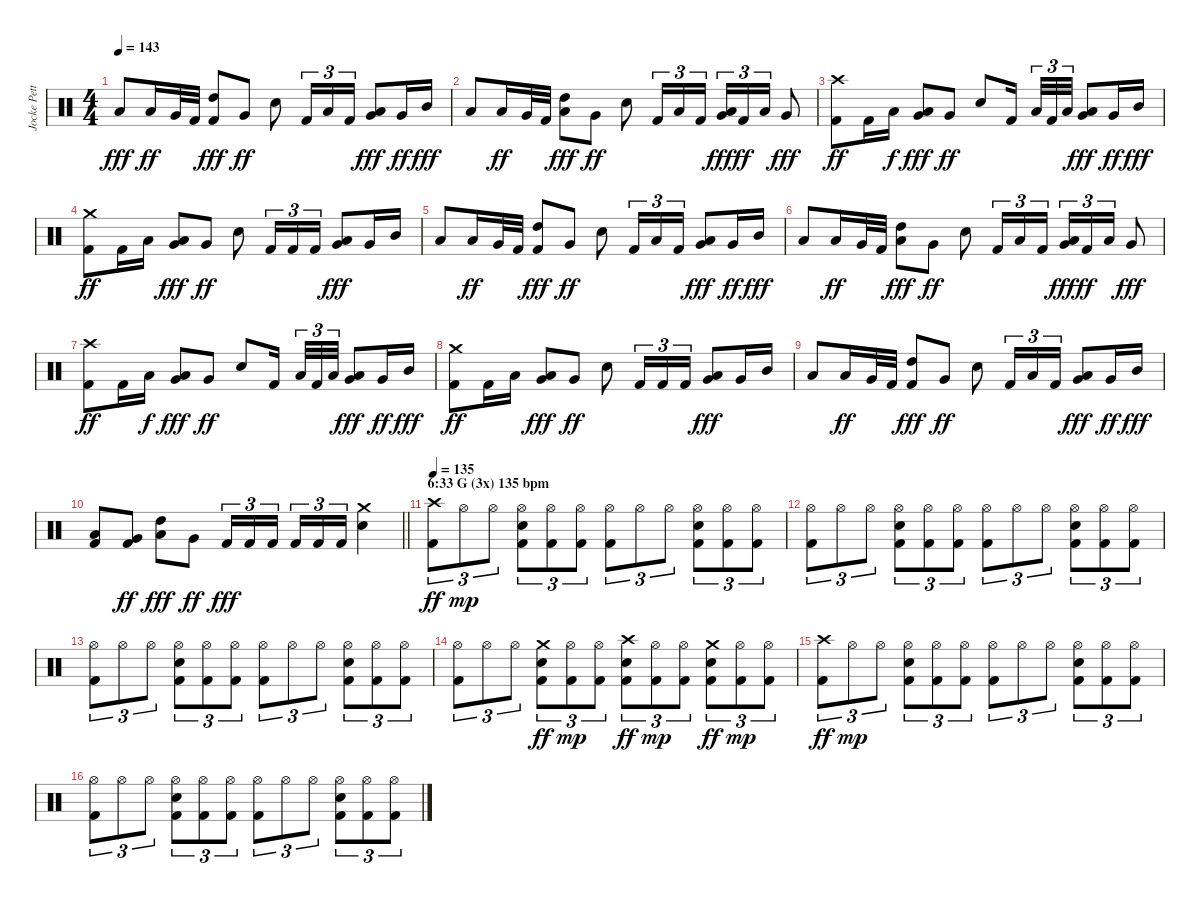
\track ("Jocke Pettersson" "Jocke Pett") {instrument percussion}
\staff {score}
\articulation defaults
\ts (4 4)
\tempo 143
\clef neutral
\ks c "Low Tom (hit)".8{dy fff} "Low Tom (hit)".16{dy ff} "Very Low Tom (hit)".32 "Kick (hit) 2".32
("Kick (hit) 2" "High Tom (hit)").8{dy fff} "Very Low Tom (hit)".8{dy ff} "Electric Snare (hit)".8 "Kick (hit) 2".16{tu (3 2)} "Low Tom (hit)".16{tu (3 2)} "Kick (hit) 2".16{tu (3 2)} ("Very Low Tom (hit)" "Low Tom (hit)").8{dy fff} "Very Low Tom (hit)".16{dy ff} "Mid Tom (hit)".16{dy fff} |
"Low Tom (hit)".8 "Low Tom (hit)".16{dy ff} "Very Low Tom (hit)".32 "Kick (hit) 2".32 ("Low Tom (hit)" "High Tom (hit)").8{dy fff} "Very Low Tom (hit)".8{dy ff} "Electric Snare (hit)".8 "Kick (hit) 2".16{tu (3 2)} "Low Tom (hit)".16{tu (3 2)} "Kick (hit) 2".16{tu (3 2)} ("Very Low Tom (hit)" "Low Tom (hit)").16{tu (3 2) dy fff} "Kick (hit) 2".16{tu (3 2) dy ff} "Low Tom (hit)".16{tu (3 2)} "Very Low Tom (hit)".8{dy fff} |
("Kick (hit) 2" "Crash high (hit)").8{dy ff} "Kick (hit) 2".16 "Low Tom (hit)".16{dy f} ("Very Low Tom (hit)" "Low Tom (hit)").8{dy fff} "Very Low Tom (hit)".8{dy ff} "Electric Snare (hit)".8 "Kick (hit) 2".16{beam splitsecondary} "Low Tom (hit)".32{tu (3 2)} "Kick (hit) 2".32{tu (3 2)} "Low Tom (hit)".32{tu (3 2)} ("Very Low Tom (hit)" "Low Tom (hit)").8{dy fff} "Very Low Tom (hit)".16{dy ff} "Mid Tom (hit)".16{dy fff} |
("Kick (hit) 2" "Crash medium (hit)").8{dy ff} "Kick (hit) 2".16 "Low Tom (hit)".16 ("Very Low Tom (hit)" "Low Tom (hit)").8{dy fff} "Very Low Tom (hit)".8{dy ff} "Electric Snare (hit)".8 "Kick (hit) 2".16{tu (3 2)} "Kick (hit) 2".16{tu (3 2)} "Kick (hit) 2".16{tu (3 2)} ("Very Low Tom (hit)" "Low Tom (hit)").8{dy fff} "Very Low Tom (hit)".16 "Mid Tom (hit)".16 |
"Low Tom (hit)".8 "Low Tom (hit)".16{dy ff} "Very Low Tom (hit)".32 "Kick (hit) 2".32 ("Kick (hit) 2" "High Tom (hit)").8{dy fff} "Very Low Tom (hit)".8{dy ff} "Electric Snare (hit)".8 "Kick (hit) 2".16{tu (3 2)} "Low Tom (hit)".16{tu (3 2)} "Kick (hit) 2".16{tu (3 2)} ("Very Low Tom (hit)" "Low Tom (hit)").8{dy fff} "Very Low Tom (hit)".16{dy ff} "Mid Tom (hit)".16{dy fff} |
"Low Tom (hit)".8 "Low Tom (hit)".16{dy ff} "Very Low Tom (hit)".32 "Kick (hit) 2".32 ("Low Tom (hit)" "High Tom (hit)").8{dy fff} "Very Low Tom (hit)".8{dy ff} "Electric Snare (hit)".8 "Kick (hit) 2".16{tu (3 2)} "Low Tom (hit)".16{tu (3 2)} "Kick (hit) 2".16{tu (3 2)} ("Very Low Tom (hit)" "Low Tom (hit)").16{tu (3 2) dy fff} "Kick (hit) 2".16{tu (3 2) dy ff} "Low Tom (hit)".16{tu (3 2)} "Very Low Tom (hit)".8{dy fff} |
("Kick (hit) 2" "Crash high (hit)").8{dy ff} "Kick (hit) 2".16 "Low Tom (hit)".16{dy f} ("Very Low Tom (hit)" "Low Tom (hit)").8{dy fff} "Very Low Tom (hit)".8{dy ff} "Electric Snare (hit)".8 "Kick (hit) 2".16{beam splitsecondary} "Low Tom (hit)".32{tu (3 2)} "Kick (hit) 2".32{tu (3 2)} "Low Tom (hit)".32{tu (3 2)} ("Very Low Tom (hit)" "Low Tom (hit)").8{dy fff} "Very Low Tom (hit)".16{dy ff} "Mid Tom (hit)".16{dy fff} |
("Kick (hit) 2" "Crash medium (hit)").8{dy ff} "Kick (hit) 2".16 "Low Tom (hit)".16 ("Very Low Tom (hit)" "Low Tom (hit)").8{dy fff} "Very Low Tom (hit)".8{dy ff} "Electric Snare (hit)".8 "Kick (hit) 2".16{tu (3 2)} "Kick (hit) 2".16{tu (3 2)} "Kick (hit) 2".16{tu (3 2)} ("Very Low Tom (hit)" "Low Tom (hit)").8{dy fff} "Very Low Tom (hit)".16 "Mid Tom (hit)".16 |
"Low Tom (hit)".8 "Low Tom (hit)".16{dy ff} "Very Low Tom (hit)".32 "Kick (hit) 2".32 ("Kick (hit) 2" "High Tom (hit)").8{dy fff} "Very Low Tom (hit)".8{dy ff} "Electric Snare (hit)".8 "Kick (hit) 2".16{tu (3 2)} "Low Tom (hit)".16{tu (3 2)} "Kick (hit) 2".16{tu (3 2)} ("Very Low Tom (hit)" "Low Tom (hit)").8{dy fff} "Very Low Tom (hit)".16{dy ff} "Mid Tom (hit)".16{dy fff} |
\barLineRight lightlight
("Kick (hit) 2" "Low Tom (hit)").8 ("Kick (hit) 2" "Very Low Tom (hit)").8{dy ff} ("Low Tom (hit)" "High Tom (hit)").8{dy fff} "Very Low Tom (hit)".8{dy ff} "Kick (hit) 2".16{tu (3 2) dy fff} "Kick (hit) 2".16{tu (3 2)} "Kick (hit) 2".16{tu (3 2) beam splitsecondary} "Kick (hit) 2".16{tu (3 2)} "Kick (hit) 2".16{tu (3 2)} "Kick (hit) 2".16{tu (3 2)} ("Electric Snare (hit)" "Crash medium (hit)").4 |
\section ("" "6:33 G (3x) 135 bpm")
\tempo 135
("Kick (hit) 2" "Crash high (hit)").8{tu (3 2) dy ff} "Hi-Hat (open)".8{tu (3 2) dy mp} "Hi-Hat (open)".8{tu (3 2)} ("Kick (hit) 2" "Electric Snare (hit)" "Hi-Hat (open)").8{tu (3 2)} ("Kick (hit) 2" "Hi-Hat (open)").8{tu (3 2)} ("Kick (hit) 2" "Hi-Hat (open)").8{tu (3 2)} ("Kick (hit) 2" "Hi-Hat (open)").8{tu (3 2)} "Hi-Hat (open)".8{tu (3 2)} "Hi-Hat (open)".8{tu (3 2)} ("Kick (hit) 2" "Electric Snare (hit)" "Hi-Hat (open)").8{tu (3 2)} ("Kick (hit) 2" "Hi-Hat (open)").8{tu (3 2)} ("Kick (hit) 2" "Hi-Hat (open)").8{tu (3 2)} |
("Kick (hit) 2" "Hi-Hat (open)").8{tu (3 2)} "Hi-Hat (open)".8{tu (3 2)} "Hi-Hat (open)".8{tu (3 2)} ("Kick (hit) 2" "Electric Snare (hit)" "Hi-Hat (open)").8{tu (3 2)} ("Kick (hit) 2" "Hi-Hat (open)").8{tu (3 2)} ("Kick (hit) 2" "Hi-Hat (open)").8{tu (3 2)} ("Kick (hit) 2" "Hi-Hat (open)").8{tu (3 2)} "Hi-Hat (open)".8{tu (3 2)} "Hi-Hat (open)".8{tu (3 2)} ("Kick (hit) 2" "Electric Snare (hit)" "Hi-Hat (open)").8{tu (3 2)} ("Kick (hit) 2" "Hi-Hat (open)").8{tu (3 2)} ("Kick (hit) 2" "Hi-Hat (open)").8{tu (3 2)} |
("Kick (hit) 2" "Hi-Hat (open)").8{tu (3 2)} "Hi-Hat (open)".8{tu (3 2)} "Hi-Hat (open)".8{tu (3 2)} ("Kick (hit) 2" "Electric Snare (hit)" "Hi-Hat (open)").8{tu (3 2)} ("Kick (hit) 2" "Hi-Hat (open)").8{tu (3 2)} ("Kick (hit) 2" "Hi-Hat (open)").8{tu (3 2)} ("Kick (hit) 2" "Hi-Hat (open)").8{tu (3 2)} "Hi-Hat (open)".8{tu (3 2)} "Hi-Hat (open)".8{tu (3 2)} ("Kick (hit) 2" "Electric Snare (hit)" "Hi-Hat (open)").8{tu (3 2)} ("Kick (hit) 2" "Hi-Hat (open)").8{tu (3 2)} ("Kick (hit) 2" "Hi-Hat (open)").8{tu (3 2)} |
("Kick (hit) 2" "Hi-Hat (open)").8{tu (3 2)} "Hi-Hat (open)".8{tu (3 2)} "Hi-Hat (open)".8{tu (3 2)} ("Kick (hit) 2" "Electric Snare (hit)" "Crash medium (hit)").8{tu (3 2) dy ff} ("Kick (hit) 2" "Hi-Hat (open)").8{tu (3 2) dy mp} ("Kick (hit) 2" "Hi-Hat (open)").8{tu (3 2)} ("Kick (hit) 2" "Electric Snare (hit)" "Crash high (hit)").8{tu (3 2) dy ff} ("Kick (hit) 2" "Hi-Hat (open)").8{tu (3 2) dy mp} ("Kick (hit) 2" "Hi-Hat (open)").8{tu (3 2)} ("Kick (hit) 2" "Electric Snare (hit)" "Crash medium (hit)").8{tu (3 2) dy ff} ("Kick (hit) 2" "Hi-Hat (open)").8{tu (3 2) dy mp} ("Kick (hit) 2" "Hi-Hat (open)").8{tu (3 2)} |
("Kick (hit) 2" "Crash high (hit)").8{tu (3 2) dy ff} "Hi-Hat (open)".8{tu (3 2) dy mp} "Hi-Hat (open)".8{tu (3 2)} ("Kick (hit) 2" "Electric Snare (hit)" "Hi-Hat (open)").8{tu (3 2)} ("Kick (hit) 2" "Hi-Hat (open)").8{tu (3 2)} ("Kick (hit) 2" "Hi-Hat (open)").8{tu (3 2)} ("Kick (hit) 2" "Hi-Hat (open)").8{tu (3 2)} "Hi-Hat (open)".8{tu (3 2)} "Hi-Hat (open)".8{tu (3 2)} ("Kick (hit) 2" "Electric Snare (hit)" "Hi-Hat (open)").8{tu (3 2)} ("Kick (hit) 2" "Hi-Hat (open)").8{tu (3 2)} ("Kick (hit) 2" "Hi-Hat (open)").8{tu (3 2)} |
("Kick (hit) 2" "Hi-Hat (open)").8{tu (3 2)} "Hi-Hat (open)".8{tu (3 2)} "Hi-Hat (open)".8{tu (3 2)} ("Kick (hit) 2" "Electric Snare (hit)" "Hi-Hat (open)").8{tu (3 2)} ("Kick (hit) 2" "Hi-Hat (open)").8{tu (3 2)} ("Kick (hit) 2" "Hi-Hat (open)").8{tu (3 2)} ("Kick (hit) 2" "Hi-Hat (open)").8{tu (3 2)} "Hi-Hat (open)".8{tu (3 2)} "Hi-Hat (open)".8{tu (3 2)} ("Kick (hit) 2" "Electric Snare (hit)" "Hi-Hat (open)").8{tu (3 2)} ("Kick (hit) 2" "Hi-Hat (open)").8{tu (3 2)} ("Kick (hit) 2" "Hi-Hat (open)").8{tu (3 2)}
